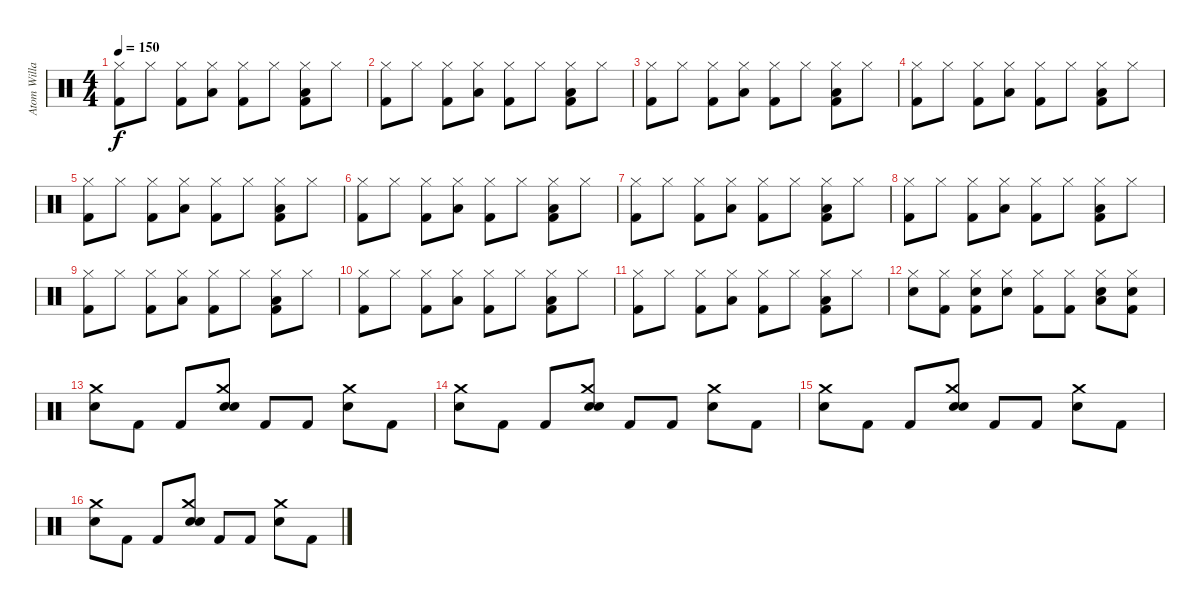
\track ("Atom Willard Drums" "Atom Willa") {instrument percussion}
\staff {score}
\articulation defaults
\ts (4 4)
\tempo 150
\clef neutral
\ks c
("Hi-Hat (closed)" "Kick (hit) 2").8{dy f} "Hi-Hat (closed)".8 ("Hi-Hat (closed)" "Kick (hit) 2").8 ("Low Tom (hit)" "Hi-Hat (closed)").8 ("Hi-Hat (closed)" "Kick (hit) 2").8 "Hi-Hat (closed)".8 ("Low Floor Tom (hit)" "Hi-Hat (closed)" "Kick (hit) 2").8 "Hi-Hat (closed)".8 |
("Hi-Hat (closed)" "Kick (hit) 2").8 "Hi-Hat (closed)".8 ("Hi-Hat (closed)" "Kick (hit) 2").8 ("Low Tom (hit)" "Hi-Hat (closed)").8 ("Hi-Hat (closed)" "Kick (hit) 2").8 "Hi-Hat (closed)".8 ("Low Floor Tom (hit)" "Hi-Hat (closed)" "Kick (hit) 2").8 "Hi-Hat (closed)".8 |
("Hi-Hat (closed)" "Kick (hit) 2").8 "Hi-Hat (closed)".8 ("Hi-Hat (closed)" "Kick (hit) 2").8 ("Low Tom (hit)" "Hi-Hat (closed)").8 ("Hi-Hat (closed)" "Kick (hit) 2").8 "Hi-Hat (closed)".8 ("Low Floor Tom (hit)" "Hi-Hat (closed)" "Kick (hit) 2").8 "Hi-Hat (closed)".8 |
("Hi-Hat (closed)" "Kick (hit) 2").8 "Hi-Hat (closed)".8 ("Hi-Hat (closed)" "Kick (hit) 2").8 ("Low Tom (hit)" "Hi-Hat (closed)").8 ("Hi-Hat (closed)" "Kick (hit) 2").8 "Hi-Hat (closed)".8 ("Low Floor Tom (hit)" "Hi-Hat (closed)" "Kick (hit) 2").8 "Hi-Hat (closed)".8 |
("Hi-Hat (closed)" "Kick (hit) 2").8 "Hi-Hat (closed)".8 ("Hi-Hat (closed)" "Kick (hit) 2").8 ("Low Tom (hit)" "Hi-Hat (closed)").8 ("Hi-Hat (closed)" "Kick (hit) 2").8 "Hi-Hat (closed)".8 ("Low Floor Tom (hit)" "Hi-Hat (closed)" "Kick (hit) 2").8 "Hi-Hat (closed)".8 |
("Hi-Hat (closed)" "Kick (hit) 2").8 "Hi-Hat (closed)".8 ("Hi-Hat (closed)" "Kick (hit) 2").8 ("Low Tom (hit)" "Hi-Hat (closed)").8 ("Hi-Hat (closed)" "Kick (hit) 2").8 "Hi-Hat (closed)".8 ("Low Floor Tom (hit)" "Hi-Hat (closed)" "Kick (hit) 2").8 "Hi-Hat (closed)".8 |
("Hi-Hat (closed)" "Kick (hit) 2").8 "Hi-Hat (closed)".8 ("Hi-Hat (closed)" "Kick (hit) 2").8 ("Low Tom (hit)" "Hi-Hat (closed)").8 ("Hi-Hat (closed)" "Kick (hit) 2").8 "Hi-Hat (closed)".8 ("Low Floor Tom (hit)" "Hi-Hat (closed)" "Kick (hit) 2").8 "Hi-Hat (closed)".8 |
("Hi-Hat (closed)" "Kick (hit) 2").8 "Hi-Hat (closed)".8 ("Hi-Hat (closed)" "Kick (hit) 2").8 ("Low Tom (hit)" "Hi-Hat (closed)").8 ("Hi-Hat (closed)" "Kick (hit) 2").8 "Hi-Hat (closed)".8 ("Low Floor Tom (hit)" "Hi-Hat (closed)" "Kick (hit) 2").8 "Hi-Hat (closed)".8 |
("Hi-Hat (closed)" "Kick (hit) 2").8 "Hi-Hat (closed)".8 ("Hi-Hat (closed)" "Kick (hit) 2").8 ("Low Tom (hit)" "Hi-Hat (closed)").8 ("Hi-Hat (closed)" "Kick (hit) 2").8 "Hi-Hat (closed)".8 ("Low Floor Tom (hit)" "Hi-Hat (closed)" "Kick (hit) 2").8 "Hi-Hat (closed)".8 |
("Hi-Hat (closed)" "Kick (hit) 2").8 "Hi-Hat (closed)".8 ("Hi-Hat (closed)" "Kick (hit) 2").8 ("Low Tom (hit)" "Hi-Hat (closed)").8 ("Hi-Hat (closed)" "Kick (hit) 2").8 "Hi-Hat (closed)".8 ("Low Floor Tom (hit)" "Hi-Hat (closed)" "Kick (hit) 2").8 "Hi-Hat (closed)".8 |
("Hi-Hat (closed)" "Kick (hit) 2").8 "Hi-Hat (closed)".8 ("Hi-Hat (closed)" "Kick (hit) 2").8 ("Low Tom (hit)" "Hi-Hat (closed)").8 ("Hi-Hat (closed)" "Kick (hit) 2").8 "Hi-Hat (closed)".8 ("Low Floor Tom (hit)" "Hi-Hat (closed)" "Kick (hit) 2").8 "Hi-Hat (closed)".8 |
("Hi-Hat (closed)" "Electric Snare (hit)").8 ("Hi-Hat (closed)" "Kick (hit) 2").8 ("Electric Snare (hit)" "Hi-Hat (closed)" "Kick (hit) 2").8 ("Hi-Hat (closed)" "Electric Snare (hit)").8 ("Hi-Hat (closed)" "Kick (hit) 2").8 ("Hi-Hat (closed)" "Kick (hit) 2").8 ("Low Floor Tom (hit)" "Hi-Hat (closed)" "Electric Snare (hit)").8 ("Electric Snare (hit)" "Hi-Hat (closed)" "Kick (hit) 2").8 |
("Crash medium (hit)" "Electric Snare (hit)").8 "Kick (hit) 2".8 "Kick (hit) 2".8 ("Crash medium (hit)" "Electric Snare (hit)" "Snare (hit)").8 "Kick (hit) 2".8 "Kick (hit) 2".8 ("Crash medium (hit)" "Electric Snare (hit)").8 "Kick (hit) 2".8 |
("Crash medium (hit)" "Electric Snare (hit)").8 "Kick (hit) 2".8 "Kick (hit) 2".8 ("Crash medium (hit)" "Electric Snare (hit)" "Snare (hit)").8 "Kick (hit) 2".8 "Kick (hit) 2".8 ("Crash medium (hit)" "Electric Snare (hit)").8 "Kick (hit) 2".8 |
("Crash medium (hit)" "Electric Snare (hit)").8 "Kick (hit) 2".8 "Kick (hit) 2".8 ("Crash medium (hit)" "Electric Snare (hit)" "Snare (hit)").8 "Kick (hit) 2".8 "Kick (hit) 2".8 ("Crash medium (hit)" "Electric Snare (hit)").8 "Kick (hit) 2".8 |
("Crash medium (hit)" "Electric Snare (hit)").8 "Kick (hit) 2".8 "Kick (hit) 2".8 ("Crash medium (hit)" "Electric Snare (hit)" "Snare (hit)").8 "Kick (hit) 2".8 "Kick (hit) 2".8 ("Crash medium (hit)" "Electric Snare (hit)").8 "Kick (hit) 2".8
